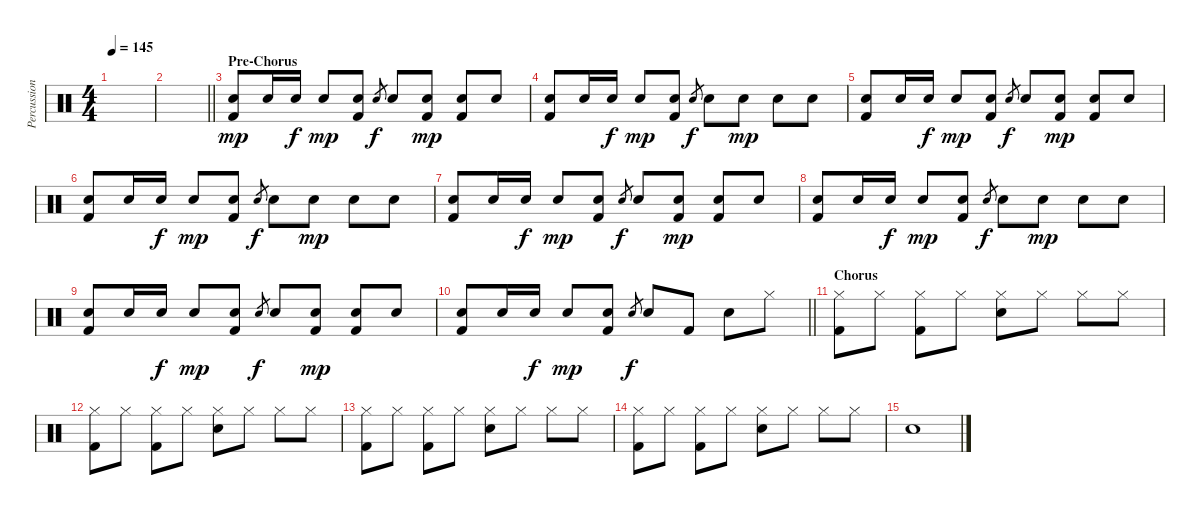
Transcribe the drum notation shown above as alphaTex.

\track ("Percussion" "Percussion") {instrument percussion}
\staff {score}
\articulation defaults
\ts (4 4)
\tempo 145
\clef neutral
\ks c
|
\barLineRight lightlight
|
\section ("" "Pre-Chorus")
("Electric Snare (hit)" "Kick (hit) 2").8{dy mp} "Electric Snare (hit)".16 "Electric Snare (hit)".16{dy f} "Electric Snare (hit)".8{dy mp} ("Electric Snare (hit)" "Kick (hit) 2").8 "Electric Snare (hit)".8{gr dy f} "Electric Snare (hit)".8 ("Electric Snare (hit)" "Kick (hit) 2").8{dy mp} ("Electric Snare (hit)" "Kick (hit) 2").8 "Electric Snare (hit)".8 |
("Electric Snare (hit)" "Kick (hit) 2").8 "Electric Snare (hit)".16 "Electric Snare (hit)".16{dy f} "Electric Snare (hit)".8{dy mp} ("Electric Snare (hit)" "Kick (hit) 2").8 "Electric Snare (hit)".8{gr dy f} "Electric Snare (hit)".8 "Electric Snare (hit)".8{dy mp} "Electric Snare (hit)".8 "Electric Snare (hit)".8 |
("Electric Snare (hit)" "Kick (hit) 2").8 "Electric Snare (hit)".16 "Electric Snare (hit)".16{dy f} "Electric Snare (hit)".8{dy mp} ("Electric Snare (hit)" "Kick (hit) 2").8 "Electric Snare (hit)".8{gr dy f} "Electric Snare (hit)".8 ("Electric Snare (hit)" "Kick (hit) 2").8{dy mp} ("Electric Snare (hit)" "Kick (hit) 2").8 "Electric Snare (hit)".8 |
("Electric Snare (hit)" "Kick (hit) 2").8 "Electric Snare (hit)".16 "Electric Snare (hit)".16{dy f} "Electric Snare (hit)".8{dy mp} ("Electric Snare (hit)" "Kick (hit) 2").8 "Electric Snare (hit)".8{gr dy f} "Electric Snare (hit)".8 "Electric Snare (hit)".8{dy mp} "Electric Snare (hit)".8 "Electric Snare (hit)".8 |
("Electric Snare (hit)" "Kick (hit) 2").8 "Electric Snare (hit)".16 "Electric Snare (hit)".16{dy f} "Electric Snare (hit)".8{dy mp} ("Electric Snare (hit)" "Kick (hit) 2").8 "Electric Snare (hit)".8{gr dy f} "Electric Snare (hit)".8 ("Electric Snare (hit)" "Kick (hit) 2").8{dy mp} ("Electric Snare (hit)" "Kick (hit) 2").8 "Electric Snare (hit)".8 |
("Electric Snare (hit)" "Kick (hit) 2").8 "Electric Snare (hit)".16 "Electric Snare (hit)".16{dy f} "Electric Snare (hit)".8{dy mp} ("Electric Snare (hit)" "Kick (hit) 2").8 "Electric Snare (hit)".8{gr dy f} "Electric Snare (hit)".8 "Electric Snare (hit)".8{dy mp} "Electric Snare (hit)".8 "Electric Snare (hit)".8 |
("Electric Snare (hit)" "Kick (hit) 2").8 "Electric Snare (hit)".16 "Electric Snare (hit)".16{dy f} "Electric Snare (hit)".8{dy mp} ("Electric Snare (hit)" "Kick (hit) 2").8 "Electric Snare (hit)".8{gr dy f} "Electric Snare (hit)".8 ("Electric Snare (hit)" "Kick (hit) 2").8{dy mp} ("Electric Snare (hit)" "Kick (hit) 2").8 "Electric Snare (hit)".8 |
\barLineRight lightlight
("Electric Snare (hit)" "Kick (hit) 2").8 "Electric Snare (hit)".16 "Electric Snare (hit)".16{dy f} "Electric Snare (hit)".8{dy mp} ("Electric Snare (hit)" "Kick (hit) 2").8 "Electric Snare (hit)".8{gr dy f} "Electric Snare (hit)".8 "Kick (hit) 2".8 "Electric Snare (hit)".8 "Hi-Hat (closed)".8 |
\section ("" "Chorus")
("Hi-Hat (closed)" "Kick (hit) 2").8 "Hi-Hat (closed)".8 ("Hi-Hat (closed)" "Kick (hit) 2").8 "Hi-Hat (closed)".8 ("Hi-Hat (closed)" "Electric Snare (hit)").8 "Hi-Hat (closed)".8 "Hi-Hat (closed)".8 "Hi-Hat (closed)".8 |
("Hi-Hat (closed)" "Kick (hit) 2").8 "Hi-Hat (closed)".8 ("Hi-Hat (closed)" "Kick (hit) 2").8 "Hi-Hat (closed)".8 ("Hi-Hat (closed)" "Electric Snare (hit)").8 "Hi-Hat (closed)".8 "Hi-Hat (closed)".8 "Hi-Hat (closed)".8 |
("Hi-Hat (closed)" "Kick (hit) 2").8 "Hi-Hat (closed)".8 ("Hi-Hat (closed)" "Kick (hit) 2").8 "Hi-Hat (closed)".8 ("Hi-Hat (closed)" "Electric Snare (hit)").8 "Hi-Hat (closed)".8 "Hi-Hat (closed)".8 "Hi-Hat (closed)".8 |
("Hi-Hat (closed)" "Kick (hit) 2").8 "Hi-Hat (closed)".8 ("Hi-Hat (closed)" "Kick (hit) 2").8 "Hi-Hat (closed)".8 ("Hi-Hat (closed)" "Electric Snare (hit)").8 "Hi-Hat (closed)".8 "Hi-Hat (closed)".8 "Hi-Hat (closed)".8 |
"Electric Snare (hit)".1
